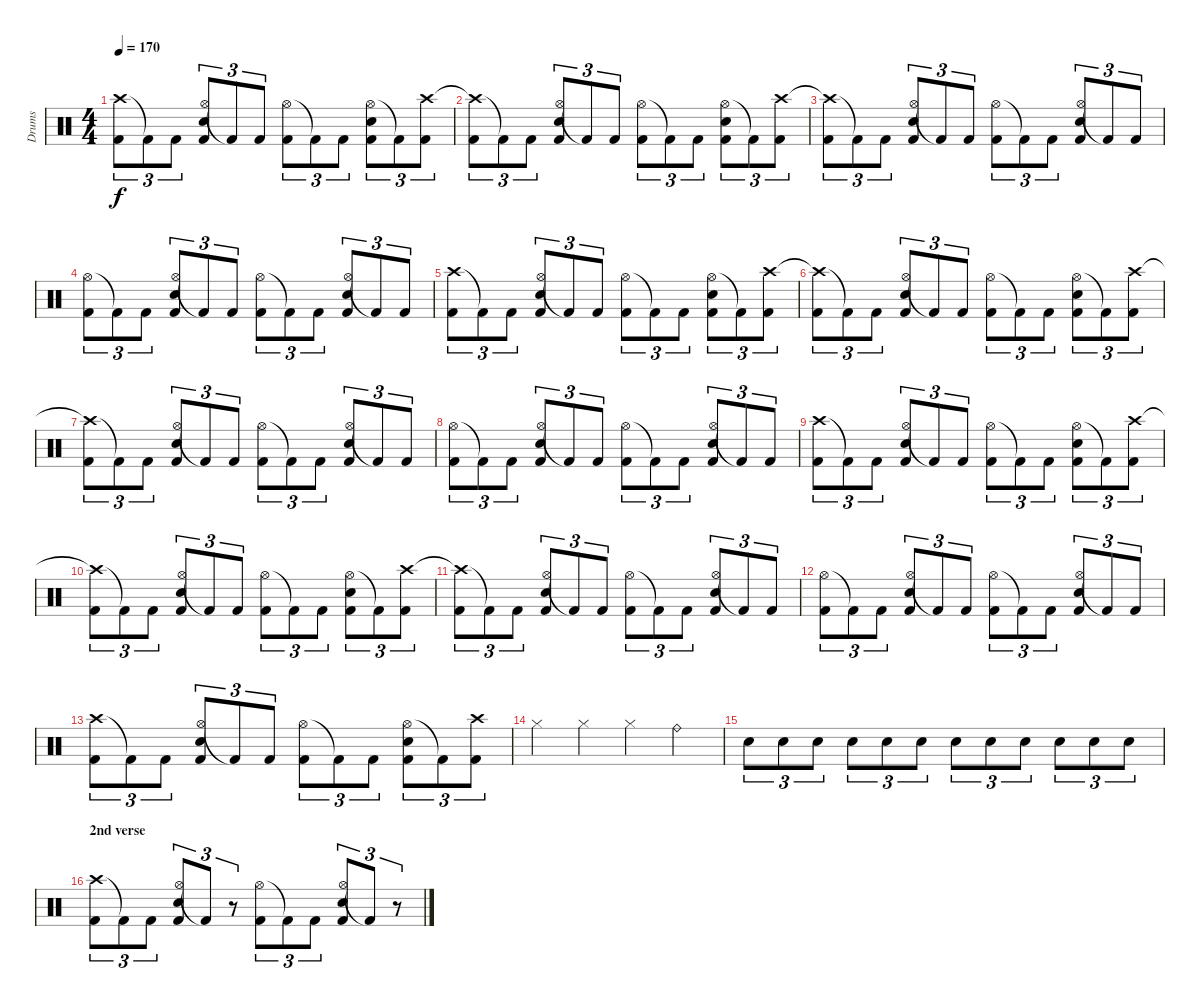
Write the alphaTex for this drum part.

\track ("Drums" "Drums") {instrument percussion}
\staff {score}
\articulation defaults
\ts (4 4)
\tempo 170
\clef neutral
\ks c
("Crash high (hit)" "Kick (hit) 2").8{tu (3 2) dy f} "Kick (hit) 2"{t}.8{tu (3 2)} "Kick (hit) 2".8{tu (3 2)} ("Hi-Hat (open)" "Snare (hit) 2" "Kick (hit) 2").8{tu (3 2)} "Kick (hit) 2"{t}.8{tu (3 2)} "Kick (hit) 2".8{tu (3 2)} ("Hi-Hat (open)" "Kick (hit) 2").8{tu (3 2)} "Kick (hit) 2"{t}.8{tu (3 2)} "Kick (hit) 2".8{tu (3 2)} ("Hi-Hat (open)" "Snare (hit) 2" "Kick (hit) 2").8{tu (3 2)} "Kick (hit) 2"{t}.8{tu (3 2)} ("Crash high (hit)" "Kick (hit) 2").8{tu (3 2)} |
("Crash high (hit)"{t} "Kick (hit) 2").8{tu (3 2)} "Kick (hit) 2"{t}.8{tu (3 2)} "Kick (hit) 2".8{tu (3 2)} ("Hi-Hat (open)" "Snare (hit) 2" "Kick (hit) 2").8{tu (3 2)} "Kick (hit) 2"{t}.8{tu (3 2)} "Kick (hit) 2".8{tu (3 2)} ("Hi-Hat (open)" "Kick (hit) 2").8{tu (3 2)} "Kick (hit) 2"{t}.8{tu (3 2)} "Kick (hit) 2".8{tu (3 2)} ("Hi-Hat (open)" "Snare (hit) 2" "Kick (hit) 2").8{tu (3 2)} "Kick (hit) 2"{t}.8{tu (3 2)} ("Crash high (hit)" "Kick (hit) 2").8{tu (3 2)} |
("Crash high (hit)"{t} "Kick (hit) 2").8{tu (3 2)} "Kick (hit) 2"{t}.8{tu (3 2)} "Kick (hit) 2".8{tu (3 2)} ("Hi-Hat (open)" "Snare (hit) 2" "Kick (hit) 2").8{tu (3 2)} "Kick (hit) 2"{t}.8{tu (3 2)} "Kick (hit) 2".8{tu (3 2)} ("Hi-Hat (open)" "Kick (hit) 2").8{tu (3 2)} "Kick (hit) 2"{t}.8{tu (3 2)} "Kick (hit) 2".8{tu (3 2)} ("Hi-Hat (open)" "Snare (hit) 2" "Kick (hit) 2").8{tu (3 2)} "Kick (hit) 2"{t}.8{tu (3 2)} "Kick (hit) 2".8{tu (3 2)} |
("Hi-Hat (open)" "Kick (hit) 2").8{tu (3 2)} "Kick (hit) 2"{t}.8{tu (3 2)} "Kick (hit) 2".8{tu (3 2)} ("Hi-Hat (open)" "Snare (hit) 2" "Kick (hit) 2").8{tu (3 2)} "Kick (hit) 2"{t}.8{tu (3 2)} "Kick (hit) 2".8{tu (3 2)} ("Hi-Hat (open)" "Kick (hit) 2").8{tu (3 2)} "Kick (hit) 2"{t}.8{tu (3 2)} "Kick (hit) 2".8{tu (3 2)} ("Hi-Hat (open)" "Snare (hit) 2" "Kick (hit) 2").8{tu (3 2)} "Kick (hit) 2"{t}.8{tu (3 2)} "Kick (hit) 2".8{tu (3 2)} |
("Crash high (hit)" "Kick (hit) 2").8{tu (3 2)} "Kick (hit) 2"{t}.8{tu (3 2)} "Kick (hit) 2".8{tu (3 2)} ("Hi-Hat (open)" "Snare (hit) 2" "Kick (hit) 2").8{tu (3 2)} "Kick (hit) 2"{t}.8{tu (3 2)} "Kick (hit) 2".8{tu (3 2)} ("Hi-Hat (open)" "Kick (hit) 2").8{tu (3 2)} "Kick (hit) 2"{t}.8{tu (3 2)} "Kick (hit) 2".8{tu (3 2)} ("Hi-Hat (open)" "Snare (hit) 2" "Kick (hit) 2").8{tu (3 2)} "Kick (hit) 2"{t}.8{tu (3 2)} ("Crash high (hit)" "Kick (hit) 2").8{tu (3 2)} |
("Crash high (hit)"{t} "Kick (hit) 2").8{tu (3 2)} "Kick (hit) 2"{t}.8{tu (3 2)} "Kick (hit) 2".8{tu (3 2)} ("Hi-Hat (open)" "Snare (hit) 2" "Kick (hit) 2").8{tu (3 2)} "Kick (hit) 2"{t}.8{tu (3 2)} "Kick (hit) 2".8{tu (3 2)} ("Hi-Hat (open)" "Kick (hit) 2").8{tu (3 2)} "Kick (hit) 2"{t}.8{tu (3 2)} "Kick (hit) 2".8{tu (3 2)} ("Hi-Hat (open)" "Snare (hit) 2" "Kick (hit) 2").8{tu (3 2)} "Kick (hit) 2"{t}.8{tu (3 2)} ("Crash high (hit)" "Kick (hit) 2").8{tu (3 2)} |
("Crash high (hit)"{t} "Kick (hit) 2").8{tu (3 2)} "Kick (hit) 2"{t}.8{tu (3 2)} "Kick (hit) 2".8{tu (3 2)} ("Hi-Hat (open)" "Snare (hit) 2" "Kick (hit) 2").8{tu (3 2)} "Kick (hit) 2"{t}.8{tu (3 2)} "Kick (hit) 2".8{tu (3 2)} ("Hi-Hat (open)" "Kick (hit) 2").8{tu (3 2)} "Kick (hit) 2"{t}.8{tu (3 2)} "Kick (hit) 2".8{tu (3 2)} ("Hi-Hat (open)" "Snare (hit) 2" "Kick (hit) 2").8{tu (3 2)} "Kick (hit) 2"{t}.8{tu (3 2)} "Kick (hit) 2".8{tu (3 2)} |
("Hi-Hat (open)" "Kick (hit) 2").8{tu (3 2)} "Kick (hit) 2"{t}.8{tu (3 2)} "Kick (hit) 2".8{tu (3 2)} ("Hi-Hat (open)" "Snare (hit) 2" "Kick (hit) 2").8{tu (3 2)} "Kick (hit) 2"{t}.8{tu (3 2)} "Kick (hit) 2".8{tu (3 2)} ("Hi-Hat (open)" "Kick (hit) 2").8{tu (3 2)} "Kick (hit) 2"{t}.8{tu (3 2)} "Kick (hit) 2".8{tu (3 2)} ("Hi-Hat (open)" "Snare (hit) 2" "Kick (hit) 2").8{tu (3 2)} "Kick (hit) 2"{t}.8{tu (3 2)} "Kick (hit) 2".8{tu (3 2)} |
("Crash high (hit)" "Kick (hit) 2").8{tu (3 2)} "Kick (hit) 2"{t}.8{tu (3 2)} "Kick (hit) 2".8{tu (3 2)} ("Hi-Hat (open)" "Snare (hit) 2" "Kick (hit) 2").8{tu (3 2)} "Kick (hit) 2"{t}.8{tu (3 2)} "Kick (hit) 2".8{tu (3 2)} ("Hi-Hat (open)" "Kick (hit) 2").8{tu (3 2)} "Kick (hit) 2"{t}.8{tu (3 2)} "Kick (hit) 2".8{tu (3 2)} ("Hi-Hat (open)" "Snare (hit) 2" "Kick (hit) 2").8{tu (3 2)} "Kick (hit) 2"{t}.8{tu (3 2)} ("Crash high (hit)" "Kick (hit) 2").8{tu (3 2)} |
("Crash high (hit)"{t} "Kick (hit) 2").8{tu (3 2)} "Kick (hit) 2"{t}.8{tu (3 2)} "Kick (hit) 2".8{tu (3 2)} ("Hi-Hat (open)" "Snare (hit) 2" "Kick (hit) 2").8{tu (3 2)} "Kick (hit) 2"{t}.8{tu (3 2)} "Kick (hit) 2".8{tu (3 2)} ("Hi-Hat (open)" "Kick (hit) 2").8{tu (3 2)} "Kick (hit) 2"{t}.8{tu (3 2)} "Kick (hit) 2".8{tu (3 2)} ("Hi-Hat (open)" "Snare (hit) 2" "Kick (hit) 2").8{tu (3 2)} "Kick (hit) 2"{t}.8{tu (3 2)} ("Crash high (hit)" "Kick (hit) 2").8{tu (3 2)} |
("Crash high (hit)"{t} "Kick (hit) 2").8{tu (3 2)} "Kick (hit) 2"{t}.8{tu (3 2)} "Kick (hit) 2".8{tu (3 2)} ("Hi-Hat (open)" "Snare (hit) 2" "Kick (hit) 2").8{tu (3 2)} "Kick (hit) 2"{t}.8{tu (3 2)} "Kick (hit) 2".8{tu (3 2)} ("Hi-Hat (open)" "Kick (hit) 2").8{tu (3 2)} "Kick (hit) 2"{t}.8{tu (3 2)} "Kick (hit) 2".8{tu (3 2)} ("Hi-Hat (open)" "Snare (hit) 2" "Kick (hit) 2").8{tu (3 2)} "Kick (hit) 2"{t}.8{tu (3 2)} "Kick (hit) 2".8{tu (3 2)} |
("Hi-Hat (open)" "Kick (hit) 2").8{tu (3 2)} "Kick (hit) 2"{t}.8{tu (3 2)} "Kick (hit) 2".8{tu (3 2)} ("Hi-Hat (open)" "Snare (hit) 2" "Kick (hit) 2").8{tu (3 2)} "Kick (hit) 2"{t}.8{tu (3 2)} "Kick (hit) 2".8{tu (3 2)} ("Hi-Hat (open)" "Kick (hit) 2").8{tu (3 2)} "Kick (hit) 2"{t}.8{tu (3 2)} "Kick (hit) 2".8{tu (3 2)} ("Hi-Hat (open)" "Snare (hit) 2" "Kick (hit) 2").8{tu (3 2)} "Kick (hit) 2"{t}.8{tu (3 2)} "Kick (hit) 2".8{tu (3 2)} |
("Crash high (hit)" "Kick (hit) 2").8{tu (3 2)} "Kick (hit) 2"{t}.8{tu (3 2)} "Kick (hit) 2".8{tu (3 2)} ("Hi-Hat (open)" "Snare (hit) 2" "Kick (hit) 2").8{tu (3 2)} "Kick (hit) 2"{t}.8{tu (3 2)} "Kick (hit) 2".8{tu (3 2)} ("Hi-Hat (open)" "Kick (hit) 2").8{tu (3 2)} "Kick (hit) 2"{t}.8{tu (3 2)} "Kick (hit) 2".8{tu (3 2)} ("Hi-Hat (open)" "Snare (hit) 2" "Kick (hit) 2").8{tu (3 2)} "Kick (hit) 2"{t}.8{tu (3 2)} ("Crash high (hit)" "Kick (hit) 2").8{tu (3 2)} |
"Hi-Hat (closed)".4 "Hi-Hat (closed)".4 "Hi-Hat (closed)".4 "Ride (bell)".4 |
"Snare (hit) 2".8{tu (3 2)} "Snare (hit) 2".8{tu (3 2)} "Snare (hit) 2".8{tu (3 2)} "Snare (hit) 2".8{tu (3 2)} "Snare (hit) 2".8{tu (3 2)} "Snare (hit) 2".8{tu (3 2)} "Snare (hit) 2".8{tu (3 2)} "Snare (hit) 2".8{tu (3 2)} "Snare (hit) 2".8{tu (3 2)} "Snare (hit) 2".8{tu (3 2)} "Snare (hit) 2".8{tu (3 2)} "Snare (hit) 2".8{tu (3 2)} |
\section ("" "2nd verse")
("Crash high (hit)" "Kick (hit) 2").8{tu (3 2)} "Kick (hit) 2"{t}.8{tu (3 2)} "Kick (hit) 2".8{tu (3 2)} ("Hi-Hat (open)" "Snare (hit) 2" "Kick (hit) 2").8{tu (3 2)} "Kick (hit) 2"{t}.8{tu (3 2)} r.8{tu (3 2)} ("Hi-Hat (open)" "Kick (hit) 2").8{tu (3 2)} "Kick (hit) 2"{t}.8{tu (3 2)} "Kick (hit) 2".8{tu (3 2)} ("Hi-Hat (open)" "Snare (hit) 2" "Kick (hit) 2").8{tu (3 2)} "Kick (hit) 2"{t}.8{tu (3 2)} r.8{tu (3 2)}
